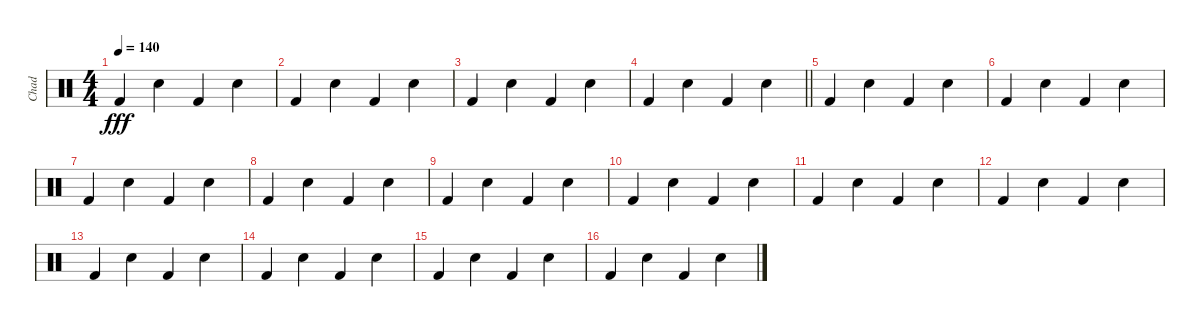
\track ("Chad" "Chad") {instrument percussion}
\staff {score}
\articulation defaults
\ts (4 4)
\tempo 140
\clef neutral
\ks c "Kick (hit) 2".4{dy fff} "Electric Snare (hit)".4 "Kick (hit) 2".4 "Electric Snare (hit)".4
|
"Kick (hit) 2".4 "Electric Snare (hit)".4 "Kick (hit) 2".4 "Electric Snare (hit)".4 |
"Kick (hit) 2".4 "Electric Snare (hit)".4 "Kick (hit) 2".4 "Electric Snare (hit)".4 |
\barLineRight lightlight "Kick (hit) 2".4 "Electric Snare (hit)".4 "Kick (hit) 2".4 "Electric Snare (hit)".4
|
"Kick (hit) 2".4 "Electric Snare (hit)".4 "Kick (hit) 2".4 "Electric Snare (hit)".4 |
"Kick (hit) 2".4 "Electric Snare (hit)".4 "Kick (hit) 2".4 "Electric Snare (hit)".4 |
"Kick (hit) 2".4 "Electric Snare (hit)".4 "Kick (hit) 2".4 "Electric Snare (hit)".4 |
"Kick (hit) 2".4 "Electric Snare (hit)".4 "Kick (hit) 2".4 "Electric Snare (hit)".4 |
"Kick (hit) 2".4 "Electric Snare (hit)".4 "Kick (hit) 2".4 "Electric Snare (hit)".4 |
"Kick (hit) 2".4 "Electric Snare (hit)".4 "Kick (hit) 2".4 "Electric Snare (hit)".4 |
"Kick (hit) 2".4 "Electric Snare (hit)".4 "Kick (hit) 2".4 "Electric Snare (hit)".4 |
"Kick (hit) 2".4 "Electric Snare (hit)".4 "Kick (hit) 2".4 "Electric Snare (hit)".4 |
"Kick (hit) 2".4 "Electric Snare (hit)".4 "Kick (hit) 2".4 "Electric Snare (hit)".4 |
"Kick (hit) 2".4 "Electric Snare (hit)".4 "Kick (hit) 2".4 "Electric Snare (hit)".4 |
"Kick (hit) 2".4 "Electric Snare (hit)".4 "Kick (hit) 2".4 "Electric Snare (hit)".4 |
"Kick (hit) 2".4 "Electric Snare (hit)".4 "Kick (hit) 2".4 "Electric Snare (hit)".4
